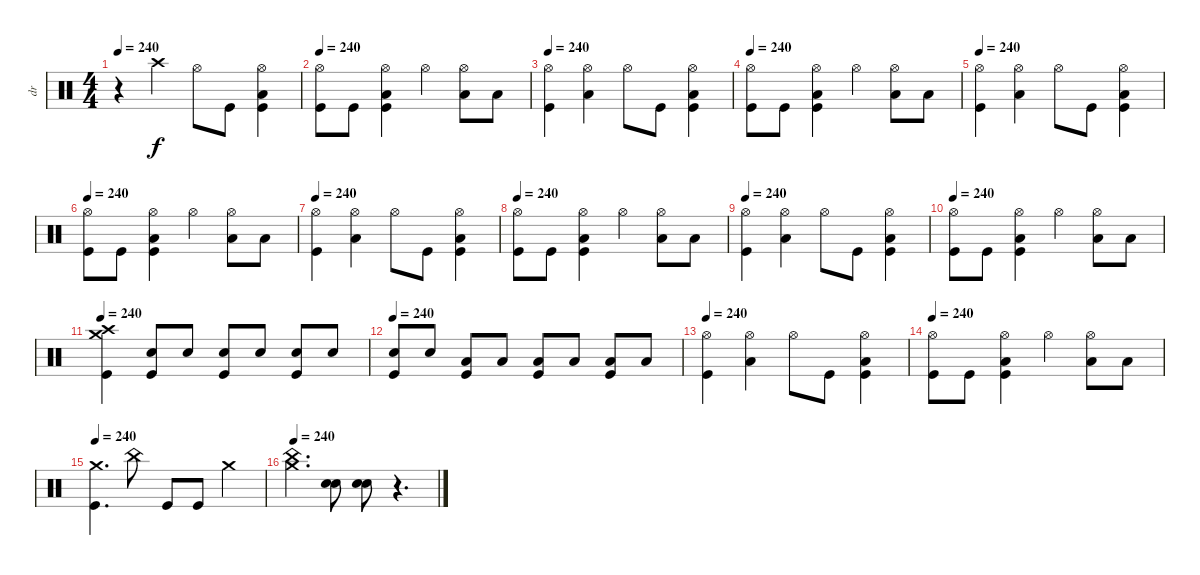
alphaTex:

\track ("dr" "dr") {instrument percussion}
\staff {score}
\articulation defaults
\ts (4 4)
\tempo 240
\clef neutral
\ks c
r.4{dy f} "Crash high (hit)".4 "Hi-Hat (open)".8 "Kick (hit)".8 ("Hi-Hat (open)" "Low Floor Tom (hit)" "Kick (hit)").4 |
\tempo 240
("Hi-Hat (open)" "Kick (hit)").8 "Kick (hit)".8 ("Hi-Hat (open)" "Low Floor Tom (hit)" "Kick (hit)").4 "Hi-Hat (open)".4 ("Hi-Hat (open)" "Low Floor Tom (hit)").8 "Low Floor Tom (hit)".8 |
\tempo 240
("Hi-Hat (open)" "Kick (hit)").4 ("Hi-Hat (open)" "Low Floor Tom (hit)").4 "Hi-Hat (open)".8 "Kick (hit)".8 ("Hi-Hat (open)" "Low Floor Tom (hit)" "Kick (hit)").4 |
\tempo 240
("Hi-Hat (open)" "Kick (hit)").8 "Kick (hit)".8 ("Hi-Hat (open)" "Low Floor Tom (hit)" "Kick (hit)").4 "Hi-Hat (open)".4 ("Hi-Hat (open)" "Low Floor Tom (hit)").8 "Low Floor Tom (hit)".8 |
\tempo 240
("Hi-Hat (open)" "Kick (hit)").4 ("Hi-Hat (open)" "Low Floor Tom (hit)").4 "Hi-Hat (open)".8 "Kick (hit)".8 ("Hi-Hat (open)" "Low Floor Tom (hit)" "Kick (hit)").4 |
\tempo 240
("Hi-Hat (open)" "Kick (hit)").8 "Kick (hit)".8 ("Hi-Hat (open)" "Low Floor Tom (hit)" "Kick (hit)").4 "Hi-Hat (open)".4 ("Hi-Hat (open)" "Low Floor Tom (hit)").8 "Low Floor Tom (hit)".8 |
\tempo 240
("Hi-Hat (open)" "Kick (hit)").4 ("Hi-Hat (open)" "Low Floor Tom (hit)").4 "Hi-Hat (open)".8 "Kick (hit)".8 ("Hi-Hat (open)" "Low Floor Tom (hit)" "Kick (hit)").4 |
\tempo 240
("Hi-Hat (open)" "Kick (hit)").8 "Kick (hit)".8 ("Hi-Hat (open)" "Low Floor Tom (hit)" "Kick (hit)").4 "Hi-Hat (open)".4 ("Hi-Hat (open)" "Low Floor Tom (hit)").8 "Low Floor Tom (hit)".8 |
\tempo 240
("Hi-Hat (open)" "Kick (hit)").4 ("Hi-Hat (open)" "Low Floor Tom (hit)").4 "Hi-Hat (open)".8 "Kick (hit)".8 ("Hi-Hat (open)" "Low Floor Tom (hit)" "Kick (hit)").4 |
\tempo 240
("Hi-Hat (open)" "Kick (hit)").8 "Kick (hit)".8 ("Hi-Hat (open)" "Low Floor Tom (hit)" "Kick (hit)").4 "Hi-Hat (open)".4 ("Hi-Hat (open)" "Low Floor Tom (hit)").8 "Low Floor Tom (hit)".8 |
\tempo 240
("Crash high (hit)" "Crash medium (hit)" "Kick (hit)").4 ("Electric Snare (hit)" "Kick (hit)").8 "Electric Snare (hit)".8 ("Electric Snare (hit)" "Kick (hit)").8 "Electric Snare (hit)".8 ("Snare (hit) 2" "Kick (hit)").8 "Snare (hit) 2".8 |
\tempo 240
("Snare (hit) 2" "Kick (hit)").8 "Snare (hit) 2".8 ("Low Floor Tom (hit)" "Kick (hit)").8 "Low Floor Tom (hit)".8 ("Low Floor Tom (hit)" "Kick (hit)").8 "Low Floor Tom (hit)".8 ("Low Floor Tom (hit)" "Kick (hit)").8 "Low Floor Tom (hit)".8 |
\tempo 240
("Hi-Hat (open)" "Kick (hit)").4 ("Hi-Hat (open)" "Low Floor Tom (hit)").4 "Hi-Hat (open)".8 "Kick (hit)".8 ("Hi-Hat (open)" "Low Floor Tom (hit)" "Kick (hit)").4 |
\tempo 240
("Hi-Hat (open)" "Kick (hit)").8 "Kick (hit)".8 ("Hi-Hat (open)" "Low Floor Tom (hit)" "Kick (hit)").4 "Hi-Hat (open)".4 ("Hi-Hat (open)" "Low Floor Tom (hit)").8 "Low Floor Tom (hit)".8 |
\tempo 240
("Crash medium (hit)" "Kick (hit)").4{d} "China (hit)".8 "Kick (hit)".8 "Kick (hit)".8 "Crash medium (hit)".4 |
\tempo 240
("Crash medium (hit)" "China (hit)").4{d} ("Electric Snare (hit)" "Snare (hit) 2").8 ("Electric Snare (hit)" "Snare (hit) 2").8 r.4{d}
